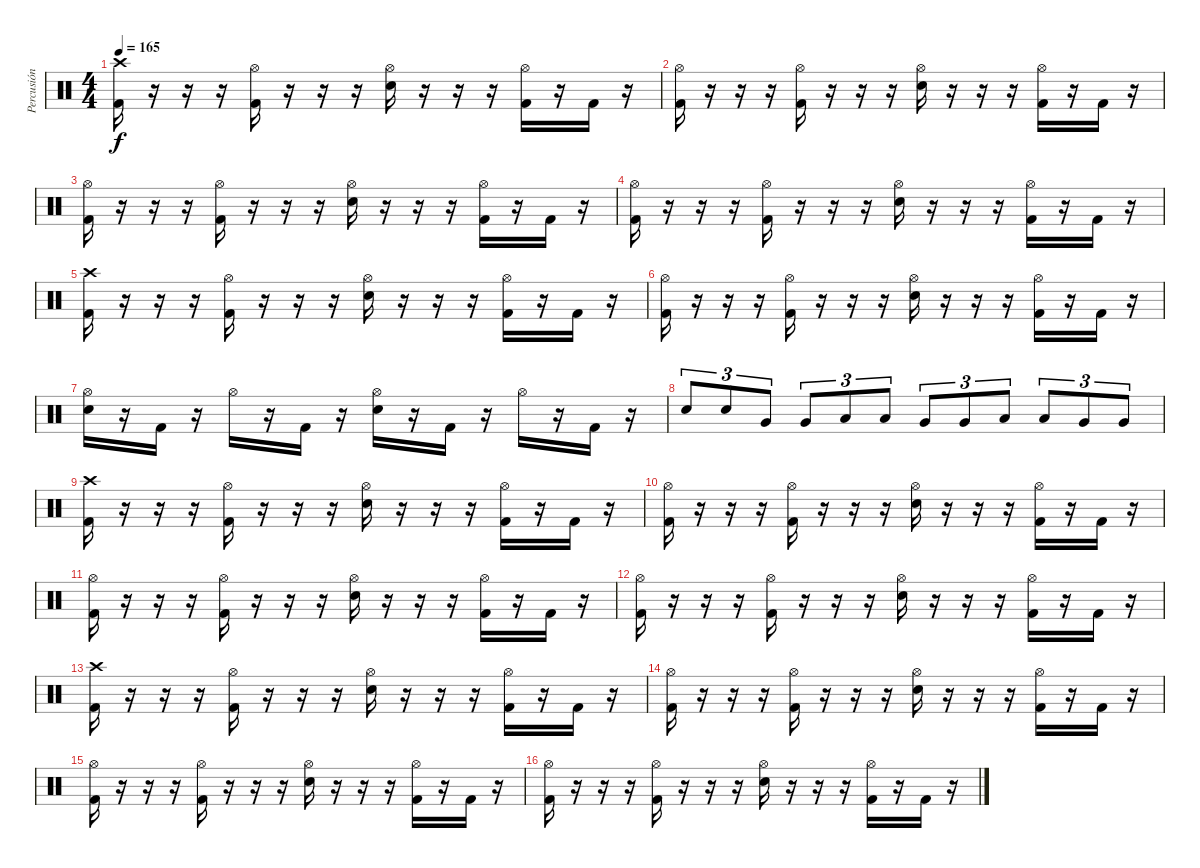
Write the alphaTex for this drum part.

\track ("Percusión" "Percusión") {instrument percussion}
\staff {score}
\articulation defaults
\ts (4 4)
\tempo 165
\clef neutral
\ks c
("Crash high (hit)" "Kick (hit) 2").16{dy f} r.16 r.16 r.16 ("Hi-Hat (open)" "Kick (hit) 2").16 r.16 r.16 r.16 ("Hi-Hat (open)" "Electric Snare (hit)").16 r.16 r.16 r.16 ("Hi-Hat (open)" "Kick (hit) 2").16 r.16 "Kick (hit) 2".16 r.16 |
("Hi-Hat (open)" "Kick (hit) 2").16 r.16 r.16 r.16 ("Hi-Hat (open)" "Kick (hit) 2").16 r.16 r.16 r.16 ("Hi-Hat (open)" "Electric Snare (hit)").16 r.16 r.16 r.16 ("Hi-Hat (open)" "Kick (hit) 2").16 r.16 "Kick (hit) 2".16 r.16 |
("Hi-Hat (open)" "Kick (hit) 2").16 r.16 r.16 r.16 ("Hi-Hat (open)" "Kick (hit) 2").16 r.16 r.16 r.16 ("Hi-Hat (open)" "Electric Snare (hit)").16 r.16 r.16 r.16 ("Hi-Hat (open)" "Kick (hit) 2").16 r.16 "Kick (hit) 2".16 r.16 |
("Hi-Hat (open)" "Kick (hit) 2").16 r.16 r.16 r.16 ("Hi-Hat (open)" "Kick (hit) 2").16 r.16 r.16 r.16 ("Hi-Hat (open)" "Electric Snare (hit)").16 r.16 r.16 r.16 ("Hi-Hat (open)" "Kick (hit) 2").16 r.16 "Kick (hit) 2".16 r.16 |
("Crash high (hit)" "Kick (hit) 2").16 r.16 r.16 r.16 ("Hi-Hat (open)" "Kick (hit) 2").16 r.16 r.16 r.16 ("Hi-Hat (open)" "Electric Snare (hit)").16 r.16 r.16 r.16 ("Hi-Hat (open)" "Kick (hit) 2").16 r.16 "Kick (hit) 2".16 r.16 |
("Hi-Hat (open)" "Kick (hit) 2").16 r.16 r.16 r.16 ("Hi-Hat (open)" "Kick (hit) 2").16 r.16 r.16 r.16 ("Hi-Hat (open)" "Electric Snare (hit)").16 r.16 r.16 r.16 ("Hi-Hat (open)" "Kick (hit) 2").16 r.16 "Kick (hit) 2".16 r.16 |
("Hi-Hat (open)" "Electric Snare (hit)").16 r.16 "Kick (hit) 2".16 r.16 "Hi-Hat (open)".16 r.16 "Kick (hit) 2".16 r.16 ("Hi-Hat (open)" "Electric Snare (hit)").16 r.16 "Kick (hit) 2".16 r.16 "Hi-Hat (open)".16 r.16 "Kick (hit) 2".16 r.16 |
"Electric Snare (hit)".8{tu (3 2)} "Electric Snare (hit)".8{tu (3 2)} "Very Low Tom (hit)".8{tu (3 2)} "Very Low Tom (hit)".8{tu (3 2)} "Low Floor Tom (hit)".8{tu (3 2)} "Low Floor Tom (hit)".8{tu (3 2)} "Very Low Tom (hit)".8{tu (3 2)} "Very Low Tom (hit)".8{tu (3 2)} "Low Tom (hit)".8{tu (3 2)} "Low Tom (hit)".8{tu (3 2)} "Very Low Tom (hit)".8{tu (3 2)} "Very Low Tom (hit)".8{tu (3 2)} |
("Crash high (hit)" "Kick (hit) 2").16 r.16 r.16 r.16 ("Hi-Hat (open)" "Kick (hit) 2").16 r.16 r.16 r.16 ("Hi-Hat (open)" "Electric Snare (hit)").16 r.16 r.16 r.16 ("Hi-Hat (open)" "Kick (hit) 2").16 r.16 "Kick (hit) 2".16 r.16 |
("Hi-Hat (open)" "Kick (hit) 2").16 r.16 r.16 r.16 ("Hi-Hat (open)" "Kick (hit) 2").16 r.16 r.16 r.16 ("Hi-Hat (open)" "Electric Snare (hit)").16 r.16 r.16 r.16 ("Hi-Hat (open)" "Kick (hit) 2").16 r.16 "Kick (hit) 2".16 r.16 |
("Hi-Hat (open)" "Kick (hit) 2").16 r.16 r.16 r.16 ("Hi-Hat (open)" "Kick (hit) 2").16 r.16 r.16 r.16 ("Hi-Hat (open)" "Electric Snare (hit)").16 r.16 r.16 r.16 ("Hi-Hat (open)" "Kick (hit) 2").16 r.16 "Kick (hit) 2".16 r.16 |
("Hi-Hat (open)" "Kick (hit) 2").16 r.16 r.16 r.16 ("Hi-Hat (open)" "Kick (hit) 2").16 r.16 r.16 r.16 ("Hi-Hat (open)" "Electric Snare (hit)").16 r.16 r.16 r.16 ("Hi-Hat (open)" "Kick (hit) 2").16 r.16 "Kick (hit) 2".16 r.16 |
("Crash high (hit)" "Kick (hit) 2").16 r.16 r.16 r.16 ("Hi-Hat (open)" "Kick (hit) 2").16 r.16 r.16 r.16 ("Hi-Hat (open)" "Electric Snare (hit)").16 r.16 r.16 r.16 ("Hi-Hat (open)" "Kick (hit) 2").16 r.16 "Kick (hit) 2".16 r.16 |
("Hi-Hat (open)" "Kick (hit) 2").16 r.16 r.16 r.16 ("Hi-Hat (open)" "Kick (hit) 2").16 r.16 r.16 r.16 ("Hi-Hat (open)" "Electric Snare (hit)").16 r.16 r.16 r.16 ("Hi-Hat (open)" "Kick (hit) 2").16 r.16 "Kick (hit) 2".16 r.16 |
("Hi-Hat (open)" "Kick (hit) 2").16 r.16 r.16 r.16 ("Hi-Hat (open)" "Kick (hit) 2").16 r.16 r.16 r.16 ("Hi-Hat (open)" "Electric Snare (hit)").16 r.16 r.16 r.16 ("Hi-Hat (open)" "Kick (hit) 2").16 r.16 "Kick (hit) 2".16 r.16 |
("Hi-Hat (open)" "Kick (hit) 2").16 r.16 r.16 r.16 ("Hi-Hat (open)" "Kick (hit) 2").16 r.16 r.16 r.16 ("Hi-Hat (open)" "Electric Snare (hit)").16 r.16 r.16 r.16 ("Hi-Hat (open)" "Kick (hit) 2").16 r.16 "Kick (hit) 2".16 r.16
